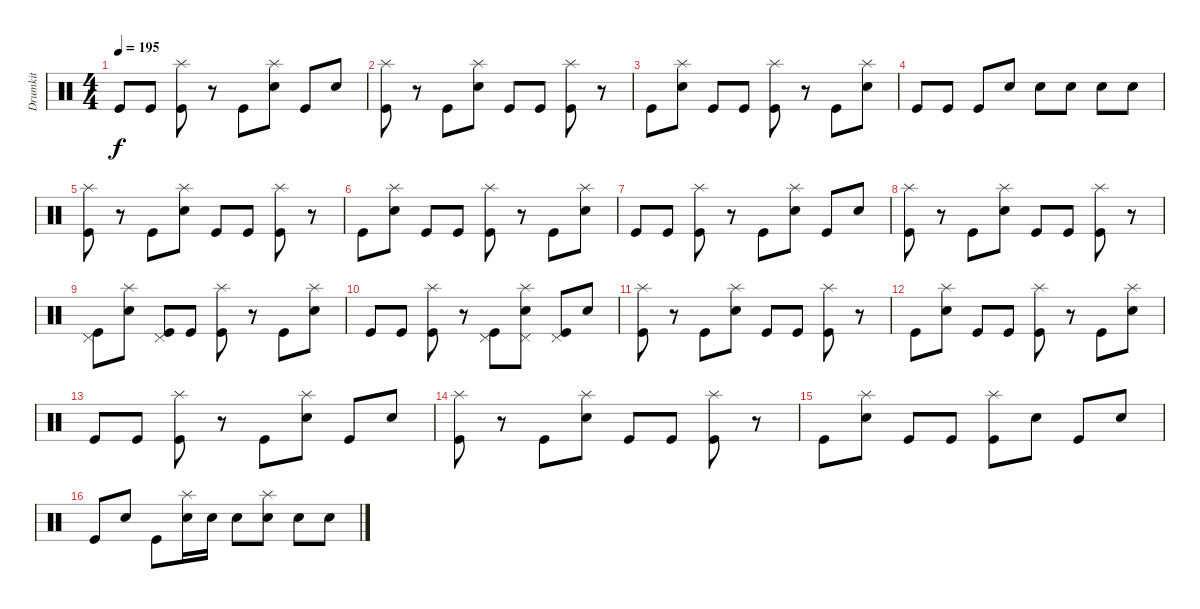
\track ("Drumkit" "Drumkit") {instrument percussion}
\staff {score}
\articulation defaults
\ts (4 4)
\tempo 195
\clef neutral
\ks c "Kick (hit)".8{dy f} "Kick (hit)".8
("Kick (hit)" "Splash (hit)").8 r.8 "Kick (hit)".8 ("Snare (hit) 2" "Splash (hit)").8 "Kick (hit)".8 "Snare (hit) 2".8 |
("Kick (hit)" "Splash (hit)").8 r.8 "Kick (hit)".8 ("Snare (hit) 2" "Splash (hit)").8 "Kick (hit)".8 "Kick (hit)".8 ("Kick (hit)" "Splash (hit)").8 r.8 |
"Kick (hit)".8 ("Snare (hit) 2" "Splash (hit)").8 "Kick (hit)".8 "Kick (hit)".8 ("Kick (hit)" "Splash (hit)").8 r.8 "Kick (hit)".8 ("Snare (hit) 2" "Splash (hit)").8 |
"Kick (hit)".8 "Kick (hit)".8 "Kick (hit)".8 "Snare (hit) 2".8 "Snare (hit) 2".8 "Snare (hit) 2".8 "Snare (hit) 2".8 "Snare (hit) 2".8 |
("Kick (hit)" "Splash (hit)").8 r.8 "Kick (hit)".8 ("Snare (hit) 2" "Splash (hit)").8 "Kick (hit)".8 "Kick (hit)".8 ("Kick (hit)" "Splash (hit)").8 r.8 |
"Kick (hit)".8 ("Snare (hit) 2" "Splash (hit)").8 "Kick (hit)".8 "Kick (hit)".8 ("Kick (hit)" "Splash (hit)").8 r.8 "Kick (hit)".8 ("Snare (hit) 2" "Splash (hit)").8 |
"Kick (hit)".8 "Kick (hit)".8 ("Kick (hit)" "Splash (hit)").8 r.8 "Kick (hit)".8 ("Snare (hit) 2" "Splash (hit)").8 "Kick (hit)".8 "Snare (hit) 2".8 |
("Kick (hit)" "Splash (hit)").8 r.8 "Kick (hit)".8 ("Snare (hit) 2" "Splash (hit)").8 "Kick (hit)".8 "Kick (hit)".8 ("Kick (hit)" "Splash (hit)").8 r.8 |
("Kick (hit)" "Pedal Hi-Hat (hit)").8 ("Snare (hit) 2" "Splash (hit)").8 ("Kick (hit)" "Pedal Hi-Hat (hit)").8 "Kick (hit)".8 ("Kick (hit)" "Splash (hit)").8 r.8 "Kick (hit)".8 ("Snare (hit) 2" "Splash (hit)").8 |
"Kick (hit)".8 "Kick (hit)".8 ("Kick (hit)" "Splash (hit)").8 r.8 ("Kick (hit)" "Pedal Hi-Hat (hit)").8 ("Snare (hit) 2" "Pedal Hi-Hat (hit)" "Splash (hit)").8 ("Kick (hit)" "Pedal Hi-Hat (hit)").8 "Snare (hit) 2".8 |
("Kick (hit)" "Splash (hit)").8 r.8 "Kick (hit)".8 ("Snare (hit) 2" "Splash (hit)").8 "Kick (hit)".8 "Kick (hit)".8 ("Kick (hit)" "Splash (hit)").8 r.8 |
"Kick (hit)".8 ("Snare (hit) 2" "Splash (hit)").8 "Kick (hit)".8 "Kick (hit)".8 ("Kick (hit)" "Splash (hit)").8 r.8 "Kick (hit)".8 ("Snare (hit) 2" "Splash (hit)").8 |
"Kick (hit)".8 "Kick (hit)".8 ("Kick (hit)" "Splash (hit)").8 r.8 "Kick (hit)".8 ("Snare (hit) 2" "Splash (hit)").8 "Kick (hit)".8 "Snare (hit) 2".8 |
("Kick (hit)" "Splash (hit)").8 r.8 "Kick (hit)".8 ("Snare (hit) 2" "Splash (hit)").8 "Kick (hit)".8 "Kick (hit)".8 ("Kick (hit)" "Splash (hit)").8 r.8 |
"Kick (hit)".8 ("Snare (hit) 2" "Splash (hit)").8 "Kick (hit)".8 "Kick (hit)".8 ("Kick (hit)" "Splash (hit)").8 "Snare (hit) 2".8 "Kick (hit)".8 "Snare (hit) 2".8 |
"Kick (hit)".8 "Snare (hit) 2".8 "Kick (hit)".8 ("Snare (hit) 2" "Splash (hit)").16 "Snare (hit) 2".16 "Snare (hit) 2".8 ("Snare (hit) 2" "Splash (hit)").8 "Snare (hit) 2".8 "Snare (hit) 2".8
